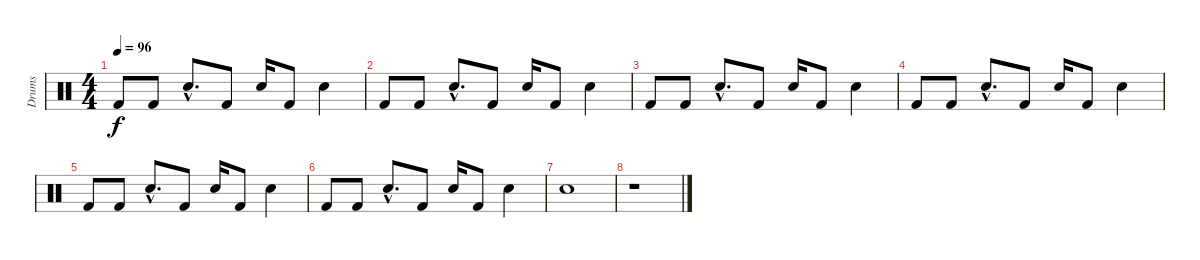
\track ("Drums" "Drums") {instrument percussion}
\staff {score}
\articulation defaults
\ts (4 4)
\tempo 96
\clef neutral
\ks c "Kick (hit) 2".8{dy f} "Kick (hit) 2".8 "Snare (hit) 2"{hac}.8{d} "Kick (hit) 2".8 "Snare (hit) 2".16 "Kick (hit) 2".8 "Snare (hit) 2".4
|
"Kick (hit) 2".8 "Kick (hit) 2".8 "Snare (hit) 2"{hac}.8{d} "Kick (hit) 2".8 "Snare (hit) 2".16 "Kick (hit) 2".8 "Snare (hit) 2".4 |
"Kick (hit) 2".8 "Kick (hit) 2".8 "Snare (hit) 2"{hac}.8{d} "Kick (hit) 2".8 "Snare (hit) 2".16 "Kick (hit) 2".8 "Snare (hit) 2".4 |
"Kick (hit) 2".8 "Kick (hit) 2".8 "Snare (hit) 2"{hac}.8{d} "Kick (hit) 2".8 "Snare (hit) 2".16 "Kick (hit) 2".8 "Snare (hit) 2".4 |
"Kick (hit) 2".8 "Kick (hit) 2".8 "Snare (hit) 2"{hac}.8{d} "Kick (hit) 2".8 "Snare (hit) 2".16 "Kick (hit) 2".8 "Snare (hit) 2".4 |
"Kick (hit) 2".8 "Kick (hit) 2".8 "Snare (hit) 2"{hac}.8{d} "Kick (hit) 2".8 "Snare (hit) 2".16 "Kick (hit) 2".8 "Snare (hit) 2".4 |
"Snare (hit) 2".1 |
r.1
